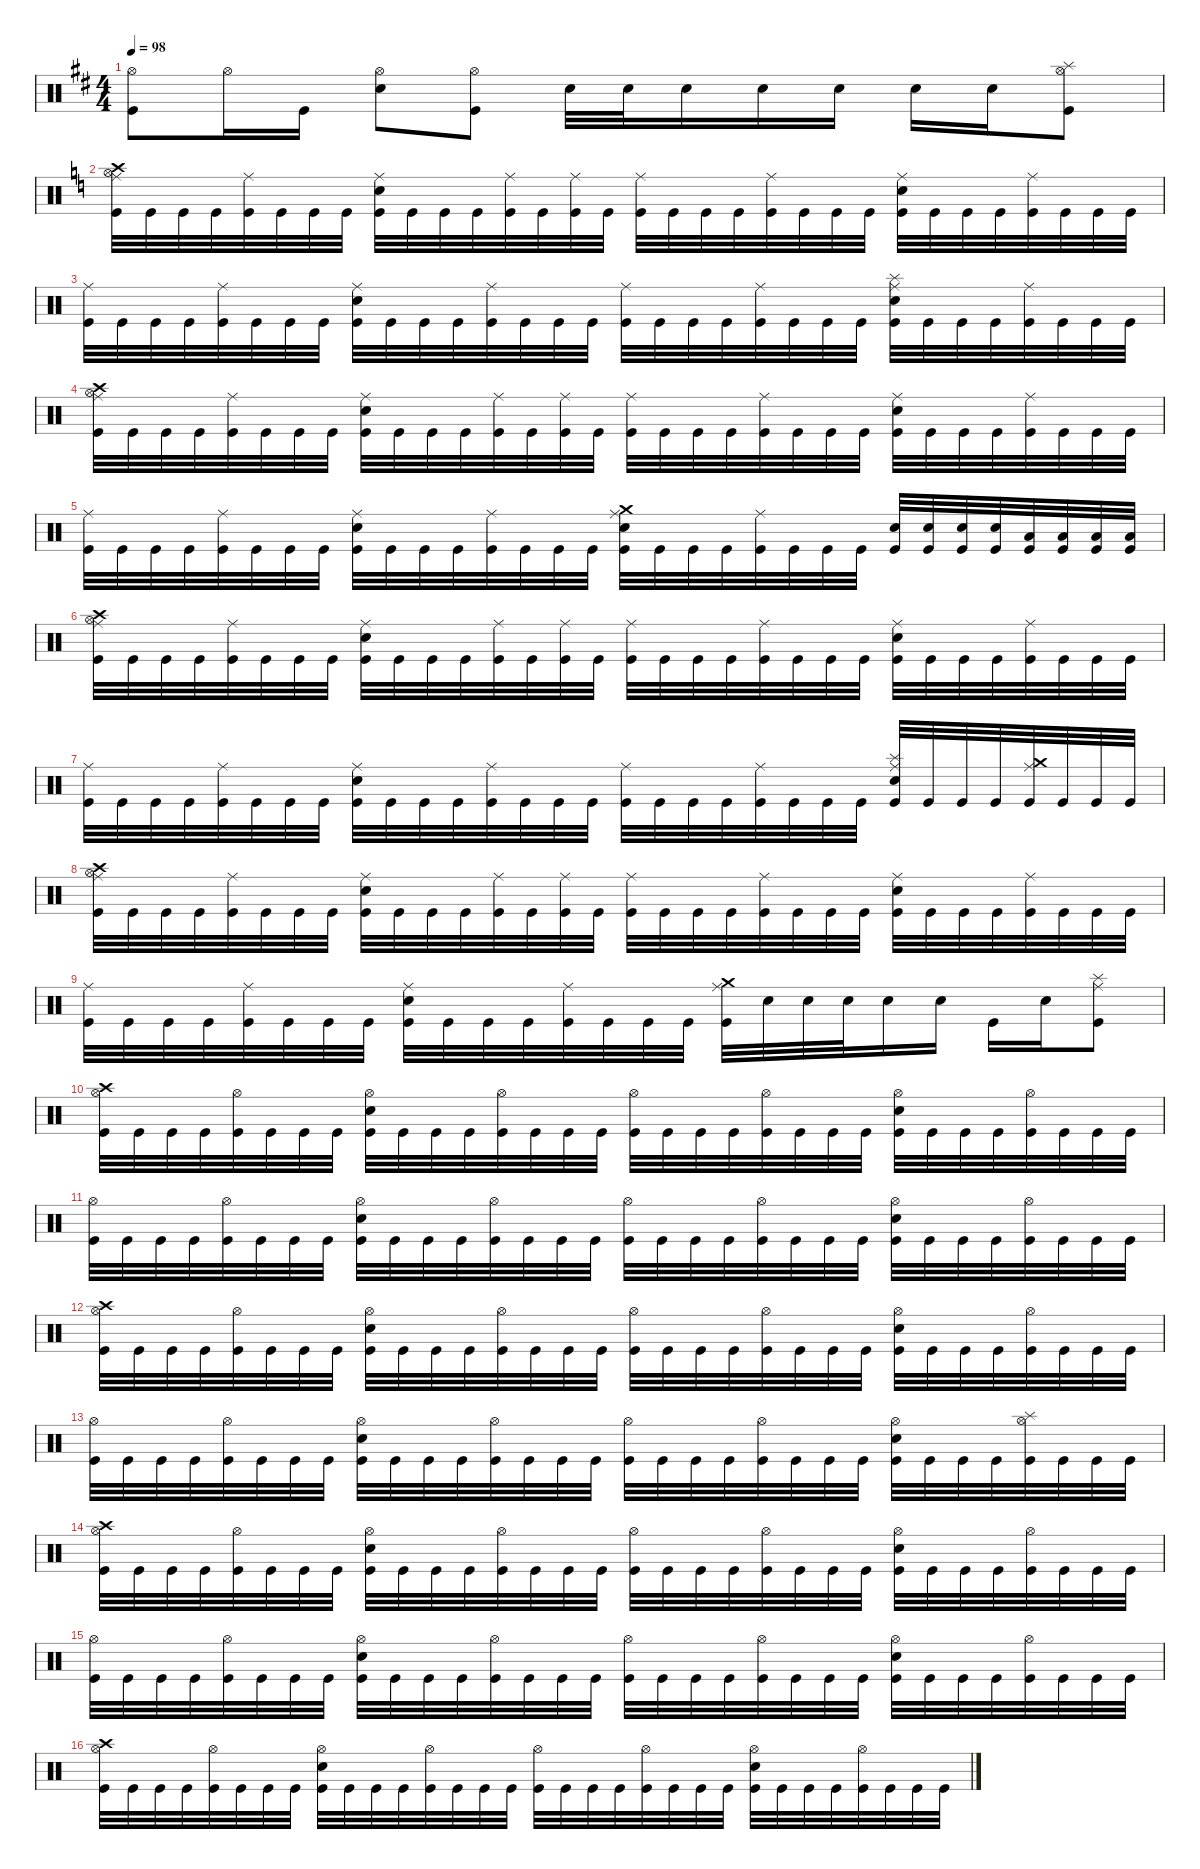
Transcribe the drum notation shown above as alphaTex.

\defaultSystemsLayout 4
\hideDynamics
\bracketExtendMode nobrackets
\singleTrackTrackNamePolicy hidden
\multiTrackTrackNamePolicy hidden
\firstSystemTrackNameMode fullname
\otherSystemsTrackNameOrientation horizontal
\track ("Drums" "drm.") {instrument percussion}
\staff {score}
\articulation defaults
\ts (4 4)
\tempo 98
\clef neutral
\ks bminor
("Hi-Hat (open)"{acc forcenatural} "Kick (hit)"{acc forcenatural}).8{dy f beam Down} "Hi-Hat (open)"{acc forcenatural}.16{beam Down} "Kick (hit)"{acc forcenatural}.16{beam Down} ("Hi-Hat (open)"{acc forcenatural} "Snare (hit) 2"{acc forcenatural}).8{beam Down} ("Hi-Hat (open)"{acc forcenatural} "Kick (hit)"{acc forcenatural}).8{beam Down} "Snare (hit) 2"{acc forcenatural}.32{dy mf beam Down} "Snare (hit) 2"{acc forcenatural}.32{beam Down} "Snare (hit) 2"{acc forcenatural}.16{dy f beam Down} "Snare (hit) 2"{acc forcenatural}.16{beam Down} "Snare (hit) 2"{acc forcenatural}.16{beam Down} "Snare (hit) 2"{acc forcenatural}.16{beam Down} "Snare (hit) 2"{acc forcenatural}.16{beam Down} ("Splash (hit)"{acc forcenatural} "Hi-Hat (open)"{acc forcenatural} "Kick (hit)"{acc forcenatural}).8{beam Down} |
\ks aminor
("Crash high (hit)" "Hi-Hat (open)" "Ride (middle)" "Kick (hit)").32{beam Down} "Kick (hit)".32{beam Down} "Kick (hit)".32{beam Down} "Kick (hit)".32{beam Down} ("Ride (middle)" "Kick (hit)").32{beam Down} "Kick (hit)".32{beam Down} "Kick (hit)".32{beam Down} "Kick (hit)".32{beam Down} ("Ride (middle)" "Snare (hit) 2" "Kick (hit)").32{beam Down} "Kick (hit)".32{beam Down} "Kick (hit)".32{beam Down} "Kick (hit)".32{beam Down} ("Ride (middle)" "Kick (hit)").32{beam Down} "Kick (hit)".32{beam Down} ("Ride (middle)" "Kick (hit)").32{beam Down} "Kick (hit)".32{beam Down} ("Ride (middle)" "Kick (hit)").32{beam Down} "Kick (hit)".32{beam Down} "Kick (hit)".32{beam Down} "Kick (hit)".32{beam Down} ("Ride (middle)" "Kick (hit)").32{beam Down} "Kick (hit)".32{beam Down} "Kick (hit)".32{beam Down} "Kick (hit)".32{beam Down} ("Ride (middle)" "Snare (hit) 2" "Kick (hit)").32{beam Down} "Kick (hit)".32{beam Down} "Kick (hit)".32{beam Down} "Kick (hit)".32{beam Down} ("Ride (middle)" "Kick (hit)").32{beam Down} "Kick (hit)".32{beam Down} "Kick (hit)".32{beam Down} "Kick (hit)".32{beam Down} |
("Ride (middle)" "Kick (hit)").32{beam Down} "Kick (hit)".32{beam Down} "Kick (hit)".32{beam Down} "Kick (hit)".32{beam Down} ("Ride (middle)" "Kick (hit)").32{beam Down} "Kick (hit)".32{beam Down} "Kick (hit)".32{beam Down} "Kick (hit)".32{beam Down} ("Ride (middle)" "Snare (hit) 2" "Kick (hit)").32{beam Down} "Kick (hit)".32{beam Down} "Kick (hit)".32{beam Down} "Kick (hit)".32{beam Down} ("Ride (middle)" "Kick (hit)").32{beam Down} "Kick (hit)".32{beam Down} "Kick (hit)".32{beam Down} "Kick (hit)".32{beam Down} ("Ride (middle)" "Kick (hit)").32{beam Down} "Kick (hit)".32{beam Down} "Kick (hit)".32{beam Down} "Kick (hit)".32{beam Down} ("Ride (middle)" "Kick (hit)").32{beam Down} "Kick (hit)".32{beam Down} "Kick (hit)".32{beam Down} "Kick (hit)".32{beam Down} ("Ride (middle)" "Splash (hit)" "Snare (hit) 2" "Kick (hit)").32{beam Down} "Kick (hit)".32{beam Down} "Kick (hit)".32{beam Down} "Kick (hit)".32{beam Down} ("Ride (middle)" "Kick (hit)").32{beam Down} "Kick (hit)".32{beam Down} "Kick (hit)".32{beam Down} "Kick (hit)".32{beam Down} |
("Crash high (hit)" "Hi-Hat (open)" "Ride (middle)" "Kick (hit)").32{beam Down} "Kick (hit)".32{beam Down} "Kick (hit)".32{beam Down} "Kick (hit)".32{beam Down} ("Ride (middle)" "Kick (hit)").32{beam Down} "Kick (hit)".32{beam Down} "Kick (hit)".32{beam Down} "Kick (hit)".32{beam Down} ("Ride (middle)" "Snare (hit) 2" "Kick (hit)").32{beam Down} "Kick (hit)".32{beam Down} "Kick (hit)".32{beam Down} "Kick (hit)".32{beam Down} ("Ride (middle)" "Kick (hit)").32{beam Down} "Kick (hit)".32{beam Down} ("Ride (middle)" "Kick (hit)").32{beam Down} "Kick (hit)".32{beam Down} ("Ride (middle)" "Kick (hit)").32{beam Down} "Kick (hit)".32{beam Down} "Kick (hit)".32{beam Down} "Kick (hit)".32{beam Down} ("Ride (middle)" "Kick (hit)").32{beam Down} "Kick (hit)".32{beam Down} "Kick (hit)".32{beam Down} "Kick (hit)".32{beam Down} ("Ride (middle)" "Snare (hit) 2" "Kick (hit)").32{beam Down} "Kick (hit)".32{beam Down} "Kick (hit)".32{beam Down} "Kick (hit)".32{beam Down} ("Ride (middle)" "Kick (hit)").32{beam Down} "Kick (hit)".32{beam Down} "Kick (hit)".32{beam Down} "Kick (hit)".32{beam Down} |
("Ride (middle)" "Kick (hit)").32{beam Down} "Kick (hit)".32{beam Down} "Kick (hit)".32{beam Down} "Kick (hit)".32{beam Down} ("Ride (middle)" "Kick (hit)").32{beam Down} "Kick (hit)".32{beam Down} "Kick (hit)".32{beam Down} "Kick (hit)".32{beam Down} ("Ride (middle)" "Snare (hit) 2" "Kick (hit)").32{beam Down} "Kick (hit)".32{beam Down} "Kick (hit)".32{beam Down} "Kick (hit)".32{beam Down} ("Ride (middle)" "Kick (hit)").32{beam Down} "Kick (hit)".32{beam Down} "Kick (hit)".32{beam Down} "Kick (hit)".32{beam Down} ("Crash medium (hit)" "Ride (middle)" "Snare (hit) 2" "Kick (hit)").32{beam Down} "Kick (hit)".32{beam Down} "Kick (hit)".32{beam Down} "Kick (hit)".32{beam Down} ("Ride (middle)" "Kick (hit)").32{beam Down} "Kick (hit)".32{beam Down} "Kick (hit)".32{beam Down} "Kick (hit)".32{beam Down} ("Snare (hit) 2" "Kick (hit)").32{beam Up} ("Snare (hit) 2" "Kick (hit)").32{beam Up} ("Snare (hit) 2" "Kick (hit)").32{beam Up} ("Snare (hit) 2" "Kick (hit)").32{beam Up} ("Low Tom (hit)" "Kick (hit)").32{beam Up} ("Low Tom (hit)" "Kick (hit)").32{beam Up} ("Low Tom (hit)" "Kick (hit)").32{beam Up} ("Low Tom (hit)" "Kick (hit)").32{beam Up} |
("Crash high (hit)" "Hi-Hat (open)" "Ride (middle)" "Kick (hit)").32{beam Down} "Kick (hit)".32{beam Down} "Kick (hit)".32{beam Down} "Kick (hit)".32{beam Down} ("Ride (middle)" "Kick (hit)").32{beam Down} "Kick (hit)".32{beam Down} "Kick (hit)".32{beam Down} "Kick (hit)".32{beam Down} ("Ride (middle)" "Snare (hit) 2" "Kick (hit)").32{beam Down} "Kick (hit)".32{beam Down} "Kick (hit)".32{beam Down} "Kick (hit)".32{beam Down} ("Ride (middle)" "Kick (hit)").32{beam Down} "Kick (hit)".32{beam Down} ("Ride (middle)" "Kick (hit)").32{beam Down} "Kick (hit)".32{beam Down} ("Ride (middle)" "Kick (hit)").32{beam Down} "Kick (hit)".32{beam Down} "Kick (hit)".32{beam Down} "Kick (hit)".32{beam Down} ("Ride (middle)" "Kick (hit)").32{beam Down} "Kick (hit)".32{beam Down} "Kick (hit)".32{beam Down} "Kick (hit)".32{beam Down} ("Ride (middle)" "Snare (hit) 2" "Kick (hit)").32{beam Down} "Kick (hit)".32{beam Down} "Kick (hit)".32{beam Down} "Kick (hit)".32{beam Down} ("Ride (middle)" "Kick (hit)").32{beam Down} "Kick (hit)".32{beam Down} "Kick (hit)".32{beam Down} "Kick (hit)".32{beam Down} |
("Ride (middle)" "Kick (hit)").32{beam Down} "Kick (hit)".32{beam Down} "Kick (hit)".32{beam Down} "Kick (hit)".32{beam Down} ("Ride (middle)" "Kick (hit)").32{beam Down} "Kick (hit)".32{beam Down} "Kick (hit)".32{beam Down} "Kick (hit)".32{beam Down} ("Ride (middle)" "Snare (hit) 2" "Kick (hit)").32{beam Down} "Kick (hit)".32{beam Down} "Kick (hit)".32{beam Down} "Kick (hit)".32{beam Down} ("Ride (middle)" "Kick (hit)").32{beam Down} "Kick (hit)".32{beam Down} "Kick (hit)".32{beam Down} "Kick (hit)".32{beam Down} ("Ride (middle)" "Kick (hit)").32{beam Down} "Kick (hit)".32{beam Down} "Kick (hit)".32{beam Down} "Kick (hit)".32{beam Down} ("Ride (middle)" "Kick (hit)").32{beam Down} "Kick (hit)".32{beam Down} "Kick (hit)".32{beam Down} "Kick (hit)".32{beam Down} ("Ride (middle)" "Splash (hit)" "Snare (hit) 2" "Kick (hit)").32{beam Up} "Kick (hit)".32{beam Up} "Kick (hit)".32{beam Up} "Kick (hit)".32{beam Up} ("Crash medium (hit)" "Ride (middle)" "Kick (hit)").32{beam Up} "Kick (hit)".32{beam Up} "Kick (hit)".32{beam Up} "Kick (hit)".32{beam Up} |
("Crash high (hit)" "Hi-Hat (open)" "Ride (middle)" "Kick (hit)").32{beam Down} "Kick (hit)".32{beam Down} "Kick (hit)".32{beam Down} "Kick (hit)".32{beam Down} ("Ride (middle)" "Kick (hit)").32{beam Down} "Kick (hit)".32{beam Down} "Kick (hit)".32{beam Down} "Kick (hit)".32{beam Down} ("Ride (middle)" "Snare (hit) 2" "Kick (hit)").32{beam Down} "Kick (hit)".32{beam Down} "Kick (hit)".32{beam Down} "Kick (hit)".32{beam Down} ("Ride (middle)" "Kick (hit)").32{beam Down} "Kick (hit)".32{beam Down} ("Ride (middle)" "Kick (hit)").32{beam Down} "Kick (hit)".32{beam Down} ("Ride (middle)" "Kick (hit)").32{beam Down} "Kick (hit)".32{beam Down} "Kick (hit)".32{beam Down} "Kick (hit)".32{beam Down} ("Ride (middle)" "Kick (hit)").32{beam Down} "Kick (hit)".32{beam Down} "Kick (hit)".32{beam Down} "Kick (hit)".32{beam Down} ("Ride (middle)" "Snare (hit) 2" "Kick (hit)").32{beam Down} "Kick (hit)".32{beam Down} "Kick (hit)".32{beam Down} "Kick (hit)".32{beam Down} ("Ride (middle)" "Kick (hit)").32{beam Down} "Kick (hit)".32{beam Down} "Kick (hit)".32{beam Down} "Kick (hit)".32{beam Down} |
("Ride (middle)" "Kick (hit)").32{beam Down} "Kick (hit)".32{beam Down} "Kick (hit)".32{beam Down} "Kick (hit)".32{beam Down} ("Ride (middle)" "Kick (hit)").32{beam Down} "Kick (hit)".32{beam Down} "Kick (hit)".32{beam Down} "Kick (hit)".32{beam Down} ("Ride (middle)" "Snare (hit) 2" "Kick (hit)").32{beam Down} "Kick (hit)".32{beam Down} "Kick (hit)".32{beam Down} "Kick (hit)".32{beam Down} ("Ride (middle)" "Kick (hit)").32{beam Down} "Kick (hit)".32{beam Down} "Kick (hit)".32{beam Down} "Kick (hit)".32{beam Down} ("Crash medium (hit)" "Ride (middle)" "Kick (hit)").32{beam Down} "Snare (hit) 2".32{dy mf beam Down} "Snare (hit) 2".32{beam Down} "Snare (hit) 2".32{dy f beam Down} "Snare (hit) 2".16{beam Down} "Snare (hit) 2".16{beam Down} "Kick (hit)".16{beam Down} "Snare (hit) 2".16{beam Down} ("Ride (middle)" "Splash (hit)" "Kick (hit)").8{beam Down} |
("Crash high (hit)" "Hi-Hat (open)" "Kick (hit)").32{beam Down} "Kick (hit)".32{beam Down} "Kick (hit)".32{beam Down} "Kick (hit)".32{beam Down} ("Hi-Hat (open)" "Kick (hit)").32{beam Down} "Kick (hit)".32{beam Down} "Kick (hit)".32{beam Down} "Kick (hit)".32{beam Down} ("Hi-Hat (open)" "Snare (hit) 2" "Kick (hit)").32{beam Down} "Kick (hit)".32{beam Down} "Kick (hit)".32{beam Down} "Kick (hit)".32{beam Down} ("Hi-Hat (open)" "Kick (hit)").32{beam Down} "Kick (hit)".32{beam Down} "Kick (hit)".32{beam Down} "Kick (hit)".32{beam Down} ("Hi-Hat (open)" "Kick (hit)").32{beam Down} "Kick (hit)".32{beam Down} "Kick (hit)".32{beam Down} "Kick (hit)".32{beam Down} ("Hi-Hat (open)" "Kick (hit)").32{beam Down} "Kick (hit)".32{beam Down} "Kick (hit)".32{beam Down} "Kick (hit)".32{beam Down} ("Hi-Hat (open)" "Snare (hit) 2" "Kick (hit)").32{beam Down} "Kick (hit)".32{beam Down} "Kick (hit)".32{beam Down} "Kick (hit)".32{beam Down} ("Hi-Hat (open)" "Kick (hit)").32{beam Down} "Kick (hit)".32{beam Down} "Kick (hit)".32{beam Down} "Kick (hit)".32{beam Down} |
("Hi-Hat (open)" "Kick (hit)").32{beam Down} "Kick (hit)".32{beam Down} "Kick (hit)".32{beam Down} "Kick (hit)".32{beam Down} ("Hi-Hat (open)" "Kick (hit)").32{beam Down} "Kick (hit)".32{beam Down} "Kick (hit)".32{beam Down} "Kick (hit)".32{beam Down} ("Hi-Hat (open)" "Snare (hit) 2" "Kick (hit)").32{beam Down} "Kick (hit)".32{beam Down} "Kick (hit)".32{beam Down} "Kick (hit)".32{beam Down} ("Hi-Hat (open)" "Kick (hit)").32{beam Down} "Kick (hit)".32{beam Down} "Kick (hit)".32{beam Down} "Kick (hit)".32{beam Down} ("Hi-Hat (open)" "Kick (hit)").32{beam Down} "Kick (hit)".32{beam Down} "Kick (hit)".32{beam Down} "Kick (hit)".32{beam Down} ("Hi-Hat (open)" "Kick (hit)").32{beam Down} "Kick (hit)".32{beam Down} "Kick (hit)".32{beam Down} "Kick (hit)".32{beam Down} ("Hi-Hat (open)" "Snare (hit) 2" "Kick (hit)").32{beam Down} "Kick (hit)".32{beam Down} "Kick (hit)".32{beam Down} "Kick (hit)".32{beam Down} ("Hi-Hat (open)" "Kick (hit)").32{beam Down} "Kick (hit)".32{beam Down} "Kick (hit)".32{beam Down} "Kick (hit)".32{beam Down} |
("Crash high (hit)" "Hi-Hat (open)" "Kick (hit)").32{beam Down} "Kick (hit)".32{beam Down} "Kick (hit)".32{beam Down} "Kick (hit)".32{beam Down} ("Hi-Hat (open)" "Kick (hit)").32{beam Down} "Kick (hit)".32{beam Down} "Kick (hit)".32{beam Down} "Kick (hit)".32{beam Down} ("Hi-Hat (open)" "Snare (hit) 2" "Kick (hit)").32{beam Down} "Kick (hit)".32{beam Down} "Kick (hit)".32{beam Down} "Kick (hit)".32{beam Down} ("Hi-Hat (open)" "Kick (hit)").32{beam Down} "Kick (hit)".32{beam Down} "Kick (hit)".32{beam Down} "Kick (hit)".32{beam Down} ("Hi-Hat (open)" "Kick (hit)").32{beam Down} "Kick (hit)".32{beam Down} "Kick (hit)".32{beam Down} "Kick (hit)".32{beam Down} ("Hi-Hat (open)" "Kick (hit)").32{beam Down} "Kick (hit)".32{beam Down} "Kick (hit)".32{beam Down} "Kick (hit)".32{beam Down} ("Hi-Hat (open)" "Snare (hit) 2" "Kick (hit)").32{beam Down} "Kick (hit)".32{beam Down} "Kick (hit)".32{beam Down} "Kick (hit)".32{beam Down} ("Hi-Hat (open)" "Kick (hit)").32{beam Down} "Kick (hit)".32{beam Down} "Kick (hit)".32{beam Down} "Kick (hit)".32{beam Down} |
("Hi-Hat (open)" "Kick (hit)").32{beam Down} "Kick (hit)".32{beam Down} "Kick (hit)".32{beam Down} "Kick (hit)".32{beam Down} ("Hi-Hat (open)" "Kick (hit)").32{beam Down} "Kick (hit)".32{beam Down} "Kick (hit)".32{beam Down} "Kick (hit)".32{beam Down} ("Hi-Hat (open)" "Snare (hit) 2" "Kick (hit)").32{beam Down} "Kick (hit)".32{beam Down} "Kick (hit)".32{beam Down} "Kick (hit)".32{beam Down} ("Hi-Hat (open)" "Kick (hit)").32{beam Down} "Kick (hit)".32{beam Down} "Kick (hit)".32{beam Down} "Kick (hit)".32{beam Down} ("Hi-Hat (open)" "Kick (hit)").32{beam Down} "Kick (hit)".32{beam Down} "Kick (hit)".32{beam Down} "Kick (hit)".32{beam Down} ("Hi-Hat (open)" "Kick (hit)").32{beam Down} "Kick (hit)".32{beam Down} "Kick (hit)".32{beam Down} "Kick (hit)".32{beam Down} ("Hi-Hat (open)" "Snare (hit) 2" "Kick (hit)").32{beam Down} "Kick (hit)".32{beam Down} "Kick (hit)".32{beam Down} "Kick (hit)".32{beam Down} ("Splash (hit)" "Hi-Hat (open)" "Kick (hit)").32{beam Down} "Kick (hit)".32{beam Down} "Kick (hit)".32{beam Down} "Kick (hit)".32{beam Down} |
("Crash high (hit)" "Hi-Hat (open)" "Kick (hit)").32{beam Down} "Kick (hit)".32{beam Down} "Kick (hit)".32{beam Down} "Kick (hit)".32{beam Down} ("Hi-Hat (open)" "Kick (hit)").32{beam Down} "Kick (hit)".32{beam Down} "Kick (hit)".32{beam Down} "Kick (hit)".32{beam Down} ("Hi-Hat (open)" "Snare (hit) 2" "Kick (hit)").32{beam Down} "Kick (hit)".32{beam Down} "Kick (hit)".32{beam Down} "Kick (hit)".32{beam Down} ("Hi-Hat (open)" "Kick (hit)").32{beam Down} "Kick (hit)".32{beam Down} "Kick (hit)".32{beam Down} "Kick (hit)".32{beam Down} ("Hi-Hat (open)" "Kick (hit)").32{beam Down} "Kick (hit)".32{beam Down} "Kick (hit)".32{beam Down} "Kick (hit)".32{beam Down} ("Hi-Hat (open)" "Kick (hit)").32{beam Down} "Kick (hit)".32{beam Down} "Kick (hit)".32{beam Down} "Kick (hit)".32{beam Down} ("Hi-Hat (open)" "Snare (hit) 2" "Kick (hit)").32{beam Down} "Kick (hit)".32{beam Down} "Kick (hit)".32{beam Down} "Kick (hit)".32{beam Down} ("Hi-Hat (open)" "Kick (hit)").32{beam Down} "Kick (hit)".32{beam Down} "Kick (hit)".32{beam Down} "Kick (hit)".32{beam Down} |
("Hi-Hat (open)" "Kick (hit)").32{beam Down} "Kick (hit)".32{beam Down} "Kick (hit)".32{beam Down} "Kick (hit)".32{beam Down} ("Hi-Hat (open)" "Kick (hit)").32{beam Down} "Kick (hit)".32{beam Down} "Kick (hit)".32{beam Down} "Kick (hit)".32{beam Down} ("Hi-Hat (open)" "Snare (hit) 2" "Kick (hit)").32{beam Down} "Kick (hit)".32{beam Down} "Kick (hit)".32{beam Down} "Kick (hit)".32{beam Down} ("Hi-Hat (open)" "Kick (hit)").32{beam Down} "Kick (hit)".32{beam Down} "Kick (hit)".32{beam Down} "Kick (hit)".32{beam Down} ("Hi-Hat (open)" "Kick (hit)").32{beam Down} "Kick (hit)".32{beam Down} "Kick (hit)".32{beam Down} "Kick (hit)".32{beam Down} ("Hi-Hat (open)" "Kick (hit)").32{beam Down} "Kick (hit)".32{beam Down} "Kick (hit)".32{beam Down} "Kick (hit)".32{beam Down} ("Hi-Hat (open)" "Snare (hit) 2" "Kick (hit)").32{beam Down} "Kick (hit)".32{beam Down} "Kick (hit)".32{beam Down} "Kick (hit)".32{beam Down} ("Hi-Hat (open)" "Kick (hit)").32{beam Down} "Kick (hit)".32{beam Down} "Kick (hit)".32{beam Down} "Kick (hit)".32{beam Down} |
("Crash high (hit)" "Hi-Hat (open)" "Kick (hit)").32{beam Down} "Kick (hit)".32{beam Down} "Kick (hit)".32{beam Down} "Kick (hit)".32{beam Down} ("Hi-Hat (open)" "Kick (hit)").32{beam Down} "Kick (hit)".32{beam Down} "Kick (hit)".32{beam Down} "Kick (hit)".32{beam Down} ("Hi-Hat (open)" "Snare (hit) 2" "Kick (hit)").32{beam Down} "Kick (hit)".32{beam Down} "Kick (hit)".32{beam Down} "Kick (hit)".32{beam Down} ("Hi-Hat (open)" "Kick (hit)").32{beam Down} "Kick (hit)".32{beam Down} "Kick (hit)".32{beam Down} "Kick (hit)".32{beam Down} ("Hi-Hat (open)" "Kick (hit)").32{beam Down} "Kick (hit)".32{beam Down} "Kick (hit)".32{beam Down} "Kick (hit)".32{beam Down} ("Hi-Hat (open)" "Kick (hit)").32{beam Down} "Kick (hit)".32{beam Down} "Kick (hit)".32{beam Down} "Kick (hit)".32{beam Down} ("Hi-Hat (open)" "Snare (hit) 2" "Kick (hit)").32{beam Down} "Kick (hit)".32{beam Down} "Kick (hit)".32{beam Down} "Kick (hit)".32{beam Down} ("Hi-Hat (open)" "Kick (hit)").32{beam Down} "Kick (hit)".32{beam Down} "Kick (hit)".32{beam Down} "Kick (hit)".32{beam Down}
